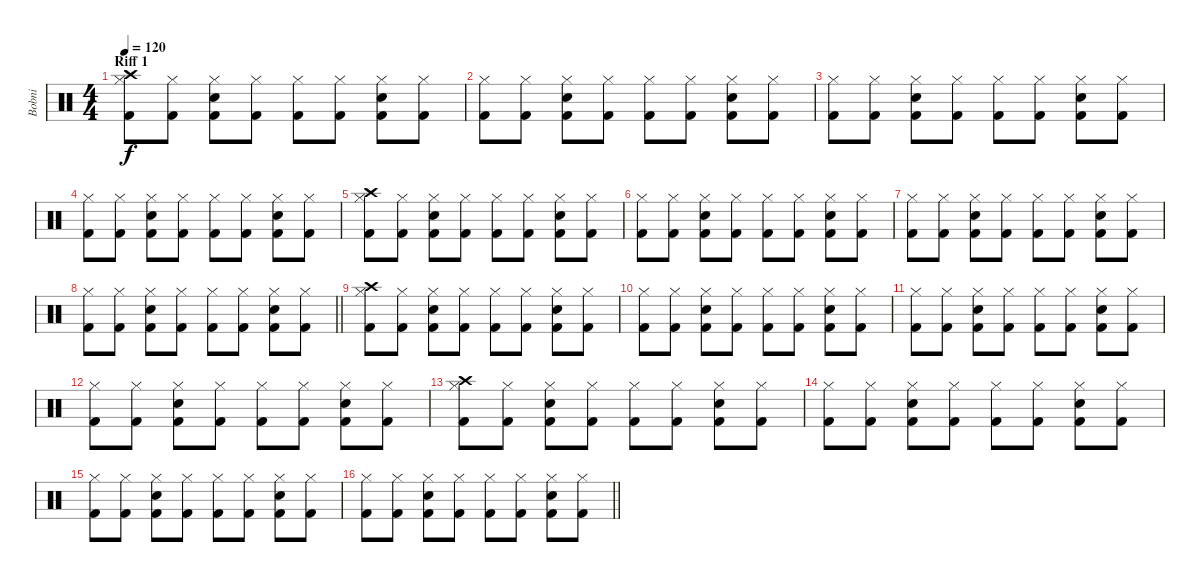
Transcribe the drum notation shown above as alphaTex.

\track ("Bobni" "Bobni") {instrument percussion}
\staff {score}
\articulation defaults
\ts (4 4)
\section ("" "Riff 1")
\tempo 120
\clef neutral
\ks c
("Crash high (hit)" "Hi-Hat (closed)" "Kick (hit) 2").8{dy f} ("Hi-Hat (closed)" "Kick (hit) 2").8 ("Hi-Hat (closed)" "Electric Snare (hit)" "Kick (hit) 2").8 ("Hi-Hat (closed)" "Kick (hit) 2").8 ("Hi-Hat (closed)" "Kick (hit) 2").8 ("Hi-Hat (closed)" "Kick (hit) 2").8 ("Hi-Hat (closed)" "Electric Snare (hit)" "Kick (hit) 2").8 ("Hi-Hat (closed)" "Kick (hit) 2").8 |
("Hi-Hat (closed)" "Kick (hit) 2").8 ("Hi-Hat (closed)" "Kick (hit) 2").8 ("Hi-Hat (closed)" "Electric Snare (hit)" "Kick (hit) 2").8 ("Hi-Hat (closed)" "Kick (hit) 2").8 ("Hi-Hat (closed)" "Kick (hit) 2").8 ("Hi-Hat (closed)" "Kick (hit) 2").8 ("Hi-Hat (closed)" "Electric Snare (hit)" "Kick (hit) 2").8 ("Hi-Hat (closed)" "Kick (hit) 2").8 |
("Hi-Hat (closed)" "Kick (hit) 2").8 ("Hi-Hat (closed)" "Kick (hit) 2").8 ("Hi-Hat (closed)" "Electric Snare (hit)" "Kick (hit) 2").8 ("Hi-Hat (closed)" "Kick (hit) 2").8 ("Hi-Hat (closed)" "Kick (hit) 2").8 ("Hi-Hat (closed)" "Kick (hit) 2").8 ("Hi-Hat (closed)" "Electric Snare (hit)" "Kick (hit) 2").8 ("Hi-Hat (closed)" "Kick (hit) 2").8 |
("Hi-Hat (closed)" "Kick (hit) 2").8 ("Hi-Hat (closed)" "Kick (hit) 2").8 ("Hi-Hat (closed)" "Electric Snare (hit)" "Kick (hit) 2").8 ("Hi-Hat (closed)" "Kick (hit) 2").8 ("Hi-Hat (closed)" "Kick (hit) 2").8 ("Hi-Hat (closed)" "Kick (hit) 2").8 ("Hi-Hat (closed)" "Electric Snare (hit)" "Kick (hit) 2").8 ("Hi-Hat (closed)" "Kick (hit) 2").8 |
("Crash high (hit)" "Hi-Hat (closed)" "Kick (hit) 2").8 ("Hi-Hat (closed)" "Kick (hit) 2").8 ("Hi-Hat (closed)" "Electric Snare (hit)" "Kick (hit) 2").8 ("Hi-Hat (closed)" "Kick (hit) 2").8 ("Hi-Hat (closed)" "Kick (hit) 2").8 ("Hi-Hat (closed)" "Kick (hit) 2").8 ("Hi-Hat (closed)" "Electric Snare (hit)" "Kick (hit) 2").8 ("Hi-Hat (closed)" "Kick (hit) 2").8 |
("Hi-Hat (closed)" "Kick (hit) 2").8 ("Hi-Hat (closed)" "Kick (hit) 2").8 ("Hi-Hat (closed)" "Electric Snare (hit)" "Kick (hit) 2").8 ("Hi-Hat (closed)" "Kick (hit) 2").8 ("Hi-Hat (closed)" "Kick (hit) 2").8 ("Hi-Hat (closed)" "Kick (hit) 2").8 ("Hi-Hat (closed)" "Electric Snare (hit)" "Kick (hit) 2").8 ("Hi-Hat (closed)" "Kick (hit) 2").8 |
("Hi-Hat (closed)" "Kick (hit) 2").8 ("Hi-Hat (closed)" "Kick (hit) 2").8 ("Hi-Hat (closed)" "Electric Snare (hit)" "Kick (hit) 2").8 ("Hi-Hat (closed)" "Kick (hit) 2").8 ("Hi-Hat (closed)" "Kick (hit) 2").8 ("Hi-Hat (closed)" "Kick (hit) 2").8 ("Hi-Hat (closed)" "Electric Snare (hit)" "Kick (hit) 2").8 ("Hi-Hat (closed)" "Kick (hit) 2").8 |
\barLineRight lightlight
("Hi-Hat (closed)" "Kick (hit) 2").8 ("Hi-Hat (closed)" "Kick (hit) 2").8 ("Hi-Hat (closed)" "Electric Snare (hit)" "Kick (hit) 2").8 ("Hi-Hat (closed)" "Kick (hit) 2").8 ("Hi-Hat (closed)" "Kick (hit) 2").8 ("Hi-Hat (closed)" "Kick (hit) 2").8 ("Hi-Hat (closed)" "Electric Snare (hit)" "Kick (hit) 2").8 ("Hi-Hat (closed)" "Kick (hit) 2").8 |
("Crash high (hit)" "Hi-Hat (closed)" "Kick (hit) 2").8 ("Hi-Hat (closed)" "Kick (hit) 2").8 ("Hi-Hat (closed)" "Electric Snare (hit)" "Kick (hit) 2").8 ("Hi-Hat (closed)" "Kick (hit) 2").8 ("Hi-Hat (closed)" "Kick (hit) 2").8 ("Hi-Hat (closed)" "Kick (hit) 2").8 ("Hi-Hat (closed)" "Electric Snare (hit)" "Kick (hit) 2").8 ("Hi-Hat (closed)" "Kick (hit) 2").8 |
("Hi-Hat (closed)" "Kick (hit) 2").8 ("Hi-Hat (closed)" "Kick (hit) 2").8 ("Hi-Hat (closed)" "Electric Snare (hit)" "Kick (hit) 2").8 ("Hi-Hat (closed)" "Kick (hit) 2").8 ("Hi-Hat (closed)" "Kick (hit) 2").8 ("Hi-Hat (closed)" "Kick (hit) 2").8 ("Hi-Hat (closed)" "Electric Snare (hit)" "Kick (hit) 2").8 ("Hi-Hat (closed)" "Kick (hit) 2").8 |
("Hi-Hat (closed)" "Kick (hit) 2").8 ("Hi-Hat (closed)" "Kick (hit) 2").8 ("Hi-Hat (closed)" "Electric Snare (hit)" "Kick (hit) 2").8 ("Hi-Hat (closed)" "Kick (hit) 2").8 ("Hi-Hat (closed)" "Kick (hit) 2").8 ("Hi-Hat (closed)" "Kick (hit) 2").8 ("Hi-Hat (closed)" "Electric Snare (hit)" "Kick (hit) 2").8 ("Hi-Hat (closed)" "Kick (hit) 2").8 |
("Hi-Hat (closed)" "Kick (hit) 2").8 ("Hi-Hat (closed)" "Kick (hit) 2").8 ("Hi-Hat (closed)" "Electric Snare (hit)" "Kick (hit) 2").8 ("Hi-Hat (closed)" "Kick (hit) 2").8 ("Hi-Hat (closed)" "Kick (hit) 2").8 ("Hi-Hat (closed)" "Kick (hit) 2").8 ("Hi-Hat (closed)" "Electric Snare (hit)" "Kick (hit) 2").8 ("Hi-Hat (closed)" "Kick (hit) 2").8 |
("Crash high (hit)" "Hi-Hat (closed)" "Kick (hit) 2").8 ("Hi-Hat (closed)" "Kick (hit) 2").8 ("Hi-Hat (closed)" "Electric Snare (hit)" "Kick (hit) 2").8 ("Hi-Hat (closed)" "Kick (hit) 2").8 ("Hi-Hat (closed)" "Kick (hit) 2").8 ("Hi-Hat (closed)" "Kick (hit) 2").8 ("Hi-Hat (closed)" "Electric Snare (hit)" "Kick (hit) 2").8 ("Hi-Hat (closed)" "Kick (hit) 2").8 |
("Hi-Hat (closed)" "Kick (hit) 2").8 ("Hi-Hat (closed)" "Kick (hit) 2").8 ("Hi-Hat (closed)" "Electric Snare (hit)" "Kick (hit) 2").8 ("Hi-Hat (closed)" "Kick (hit) 2").8 ("Hi-Hat (closed)" "Kick (hit) 2").8 ("Hi-Hat (closed)" "Kick (hit) 2").8 ("Hi-Hat (closed)" "Electric Snare (hit)" "Kick (hit) 2").8 ("Hi-Hat (closed)" "Kick (hit) 2").8 |
("Hi-Hat (closed)" "Kick (hit) 2").8 ("Hi-Hat (closed)" "Kick (hit) 2").8 ("Hi-Hat (closed)" "Electric Snare (hit)" "Kick (hit) 2").8 ("Hi-Hat (closed)" "Kick (hit) 2").8 ("Hi-Hat (closed)" "Kick (hit) 2").8 ("Hi-Hat (closed)" "Kick (hit) 2").8 ("Hi-Hat (closed)" "Electric Snare (hit)" "Kick (hit) 2").8 ("Hi-Hat (closed)" "Kick (hit) 2").8 |
\barLineRight lightlight
("Hi-Hat (closed)" "Kick (hit) 2").8 ("Hi-Hat (closed)" "Kick (hit) 2").8 ("Hi-Hat (closed)" "Electric Snare (hit)" "Kick (hit) 2").8 ("Hi-Hat (closed)" "Kick (hit) 2").8 ("Hi-Hat (closed)" "Kick (hit) 2").8 ("Hi-Hat (closed)" "Kick (hit) 2").8 ("Hi-Hat (closed)" "Electric Snare (hit)" "Kick (hit) 2").8 ("Hi-Hat (closed)" "Kick (hit) 2").8
